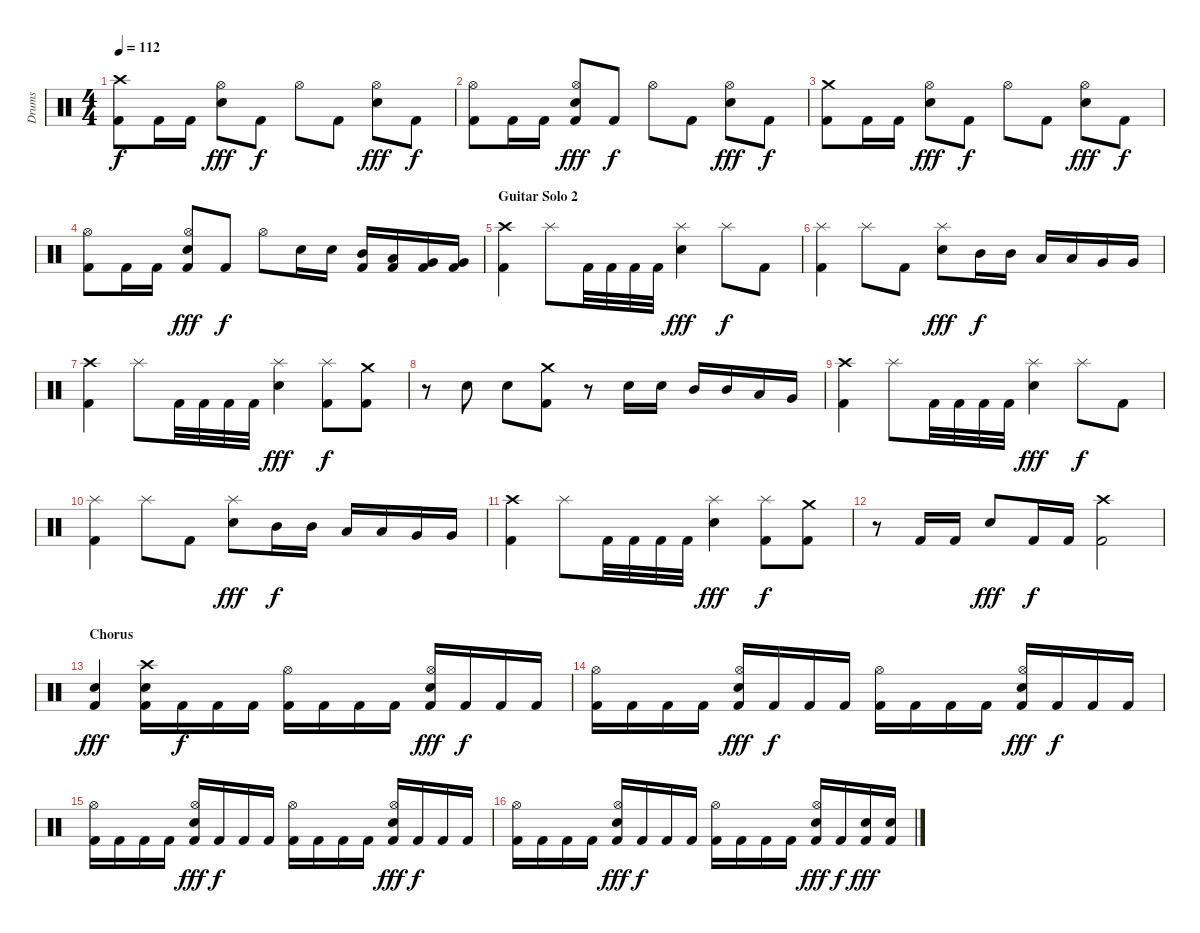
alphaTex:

\track ("Drums" "Drums") {instrument percussion}
\staff {score}
\articulation defaults
\ts (4 4)
\tempo 112
\clef neutral
\ks c
("Crash high (hit)" "Kick (hit) 2").8{dy f} "Kick (hit) 2".16 "Kick (hit) 2".16 ("Hi-Hat (open)" "Snare (hit) 2").8{dy fff} "Kick (hit) 2".8{dy f} "Hi-Hat (open)".8 "Kick (hit) 2".8 ("Hi-Hat (open)" "Snare (hit) 2").8{dy fff} "Kick (hit) 2".8{dy f} |
("Hi-Hat (open)" "Kick (hit) 2").8 "Kick (hit) 2".16 "Kick (hit) 2".16 ("Hi-Hat (open)" "Snare (hit) 2" "Kick (hit) 2").8{dy fff} "Kick (hit) 2".8{dy f} "Hi-Hat (open)".8 "Kick (hit) 2".8 ("Hi-Hat (open)" "Snare (hit) 2").8{dy fff} "Kick (hit) 2".8{dy f} |
("Crash medium (hit)" "Kick (hit) 2").8 "Kick (hit) 2".16 "Kick (hit) 2".16 ("Hi-Hat (open)" "Snare (hit) 2").8{dy fff} "Kick (hit) 2".8{dy f} "Hi-Hat (open)".8 "Kick (hit) 2".8 ("Hi-Hat (open)" "Snare (hit) 2").8{dy fff} "Kick (hit) 2".8{dy f} |
("Hi-Hat (open)" "Kick (hit) 2").8 "Kick (hit) 2".16 "Kick (hit) 2".16 ("Hi-Hat (open)" "Snare (hit) 2" "Kick (hit) 2").8{dy fff} "Kick (hit) 2".8{dy f} "Hi-Hat (open)".8 "Snare (hit) 2".16 "Snare (hit) 2".16 ("Mid Tom (hit)" "Kick (hit) 2").16 ("Low Tom (hit)" "Kick (hit) 2").16 ("Very Low Tom (hit)" "Kick (hit) 2").16 ("Very Low Tom (hit)" "Kick (hit) 2").16 |
\section ("" "Guitar Solo 2")
("Crash high (hit)" "Kick (hit) 2").4 "Splash (hit)".8 "Kick (hit) 2".32 "Kick (hit) 2".32 "Kick (hit) 2".32 "Kick (hit) 2".32 ("Splash (hit)" "Snare (hit) 2").4{dy fff} "Splash (hit)".8{dy f} "Kick (hit) 2".8 |
("Splash (hit)" "Kick (hit) 2").4 "Splash (hit)".8 "Kick (hit) 2".8 ("Splash (hit)" "Snare (hit) 2").8{dy fff} "Mid Tom (hit)".16{dy f} "Mid Tom (hit)".16 "Low Tom (hit)".16 "Low Tom (hit)".16 "Very Low Tom (hit)".16 "Very Low Tom (hit)".16 |
("Crash high (hit)" "Kick (hit) 2").4 "Splash (hit)".8 "Kick (hit) 2".32 "Kick (hit) 2".32 "Kick (hit) 2".32 "Kick (hit) 2".32 ("Splash (hit)" "Snare (hit) 2").4{dy fff} ("Splash (hit)" "Kick (hit) 2").8{dy f} ("Crash medium (hit)" "Kick (hit) 2").8 |
r.8 "Snare (hit) 2".8 "Snare (hit) 2".8 ("Crash medium (hit)" "Kick (hit) 2").8 r.8 "Snare (hit) 2".16 "Snare (hit) 2".16 "Mid Tom (hit)".16 "Mid Tom (hit)".16 "Low Tom (hit)".16 "Very Low Tom (hit)".16 |
("Crash high (hit)" "Kick (hit) 2").4 "Splash (hit)".8 "Kick (hit) 2".32 "Kick (hit) 2".32 "Kick (hit) 2".32 "Kick (hit) 2".32 ("Splash (hit)" "Snare (hit) 2").4{dy fff} "Splash (hit)".8{dy f} "Kick (hit) 2".8 |
("Splash (hit)" "Kick (hit) 2").4 "Splash (hit)".8 "Kick (hit) 2".8 ("Splash (hit)" "Snare (hit) 2").8{dy fff} "Mid Tom (hit)".16{dy f} "Mid Tom (hit)".16 "Low Tom (hit)".16 "Low Tom (hit)".16 "Very Low Tom (hit)".16 "Very Low Tom (hit)".16 |
("Crash high (hit)" "Kick (hit) 2").4 "Splash (hit)".8 "Kick (hit) 2".32 "Kick (hit) 2".32 "Kick (hit) 2".32 "Kick (hit) 2".32 ("Splash (hit)" "Snare (hit) 2").4{dy fff} ("Splash (hit)" "Kick (hit) 2").8{dy f} ("Crash medium (hit)" "Kick (hit) 2").8 |
r.8 "Kick (hit) 2".16 "Kick (hit) 2".16 "Snare (hit) 2".8{dy fff} "Kick (hit) 2".16{dy f} "Kick (hit) 2".16 ("Crash high (hit)" "Kick (hit) 2").2 |
\section ("" "Chorus")
("Snare (hit) 2" "Kick (hit) 2").4{dy fff} ("Crash high (hit)" "Snare (hit) 2" "Kick (hit) 2").16 "Kick (hit) 2".16{dy f} "Kick (hit) 2".16 "Kick (hit) 2".16 ("Hi-Hat (open)" "Kick (hit) 2").16 "Kick (hit) 2".16 "Kick (hit) 2".16 "Kick (hit) 2".16 ("Hi-Hat (open)" "Snare (hit) 2" "Kick (hit) 2").16{dy fff} "Kick (hit) 2".16{dy f} "Kick (hit) 2".16 "Kick (hit) 2".16 |
("Hi-Hat (open)" "Kick (hit) 2").16 "Kick (hit) 2".16 "Kick (hit) 2".16 "Kick (hit) 2".16 ("Hi-Hat (open)" "Snare (hit) 2" "Kick (hit) 2").16{dy fff} "Kick (hit) 2".16{dy f} "Kick (hit) 2".16 "Kick (hit) 2".16 ("Hi-Hat (open)" "Kick (hit) 2").16 "Kick (hit) 2".16 "Kick (hit) 2".16 "Kick (hit) 2".16 ("Hi-Hat (open)" "Snare (hit) 2" "Kick (hit) 2").16{dy fff} "Kick (hit) 2".16{dy f} "Kick (hit) 2".16 "Kick (hit) 2".16 |
("Hi-Hat (open)" "Kick (hit) 2").16 "Kick (hit) 2".16 "Kick (hit) 2".16 "Kick (hit) 2".16 ("Hi-Hat (open)" "Snare (hit) 2" "Kick (hit) 2").16{dy fff} "Kick (hit) 2".16{dy f} "Kick (hit) 2".16 "Kick (hit) 2".16 ("Hi-Hat (open)" "Kick (hit) 2").16 "Kick (hit) 2".16 "Kick (hit) 2".16 "Kick (hit) 2".16 ("Hi-Hat (open)" "Snare (hit) 2" "Kick (hit) 2").16{dy fff} "Kick (hit) 2".16{dy f} "Kick (hit) 2".16 "Kick (hit) 2".16 |
("Hi-Hat (open)" "Kick (hit) 2").16 "Kick (hit) 2".16 "Kick (hit) 2".16 "Kick (hit) 2".16 ("Hi-Hat (open)" "Snare (hit) 2" "Kick (hit) 2").16{dy fff} "Kick (hit) 2".16{dy f} "Kick (hit) 2".16 "Kick (hit) 2".16 ("Hi-Hat (open)" "Kick (hit) 2").16 "Kick (hit) 2".16 "Kick (hit) 2".16 "Kick (hit) 2".16 ("Hi-Hat (open)" "Snare (hit) 2" "Kick (hit) 2").16{dy fff} "Kick (hit) 2".16{dy f} ("Snare (hit) 2" "Kick (hit) 2").16{dy fff} ("Snare (hit) 2" "Kick (hit) 2").16
